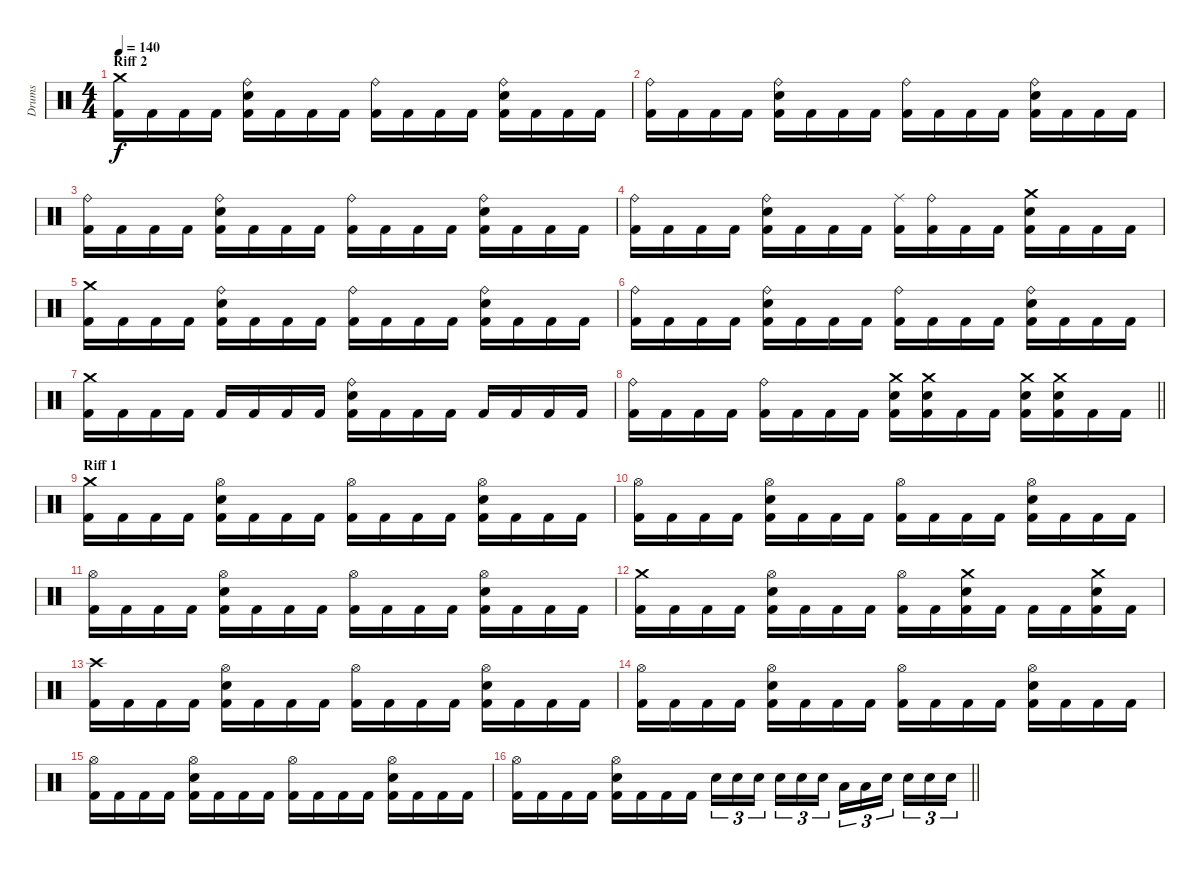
\track ("Drums" "Drums") {instrument percussion}
\staff {score}
\articulation defaults
\ts (4 4)
\section ("" "Riff 2")
\tempo 140
\clef neutral
\ks c
("Crash medium (hit)" "Kick (hit) 2").16{dy f} "Kick (hit) 2".16 "Kick (hit) 2".16 "Kick (hit) 2".16 ("Electric Snare (hit)" "Ride (bell)" "Kick (hit) 2").16 "Kick (hit) 2".16 "Kick (hit) 2".16 "Kick (hit) 2".16 ("Ride (bell)" "Kick (hit) 2").16 "Kick (hit) 2".16 "Kick (hit) 2".16 "Kick (hit) 2".16 ("Kick (hit) 2" "Electric Snare (hit)" "Ride (bell)").16 "Kick (hit) 2".16 "Kick (hit) 2".16 "Kick (hit) 2".16 |
("Ride (bell)" "Kick (hit) 2").16 "Kick (hit) 2".16 "Kick (hit) 2".16 "Kick (hit) 2".16 ("Ride (bell)" "Electric Snare (hit)" "Kick (hit) 2").16 "Kick (hit) 2".16 "Kick (hit) 2".16 "Kick (hit) 2".16 ("Ride (bell)" "Kick (hit) 2").16 "Kick (hit) 2".16 "Kick (hit) 2".16 "Kick (hit) 2".16 ("Kick (hit) 2" "Ride (bell)" "Electric Snare (hit)").16 "Kick (hit) 2".16 "Kick (hit) 2".16 "Kick (hit) 2".16 |
("Ride (bell)" "Kick (hit) 2").16 "Kick (hit) 2".16 "Kick (hit) 2".16 "Kick (hit) 2".16 ("Ride (bell)" "Electric Snare (hit)" "Kick (hit) 2").16 "Kick (hit) 2".16 "Kick (hit) 2".16 "Kick (hit) 2".16 ("Ride (bell)" "Kick (hit) 2").16 "Kick (hit) 2".16 "Kick (hit) 2".16 "Kick (hit) 2".16 ("Kick (hit) 2" "Ride (bell)" "Electric Snare (hit)").16 "Kick (hit) 2".16 "Kick (hit) 2".16 "Kick (hit) 2".16 |
("Ride (bell)" "Kick (hit) 2").16 "Kick (hit) 2".16 "Kick (hit) 2".16 "Kick (hit) 2".16 ("Ride (bell)" "Electric Snare (hit)" "Kick (hit) 2").16 "Kick (hit) 2".16 "Kick (hit) 2".16 "Kick (hit) 2".16 ("Ride (middle)" "Kick (hit) 2").16 ("Ride (bell)" "Kick (hit) 2").16 "Kick (hit) 2".16 "Kick (hit) 2".16 ("Kick (hit) 2" "Crash medium (hit)" "Electric Snare (hit)").16 "Kick (hit) 2".16 "Kick (hit) 2".16 "Kick (hit) 2".16 |
("Crash medium (hit)" "Kick (hit) 2").16 "Kick (hit) 2".16 "Kick (hit) 2".16 "Kick (hit) 2".16 ("Electric Snare (hit)" "Ride (bell)" "Kick (hit) 2").16 "Kick (hit) 2".16 "Kick (hit) 2".16 "Kick (hit) 2".16 ("Ride (bell)" "Kick (hit) 2").16 "Kick (hit) 2".16 "Kick (hit) 2".16 "Kick (hit) 2".16 ("Kick (hit) 2" "Electric Snare (hit)" "Ride (bell)").16 "Kick (hit) 2".16 "Kick (hit) 2".16 "Kick (hit) 2".16 |
("Ride (bell)" "Kick (hit) 2").16 "Kick (hit) 2".16 "Kick (hit) 2".16 "Kick (hit) 2".16 ("Ride (bell)" "Electric Snare (hit)" "Kick (hit) 2").16 "Kick (hit) 2".16 "Kick (hit) 2".16 "Kick (hit) 2".16 ("Ride (bell)" "Kick (hit) 2").16 "Kick (hit) 2".16 "Kick (hit) 2".16 "Kick (hit) 2".16 ("Kick (hit) 2" "Ride (bell)" "Electric Snare (hit)").16 "Kick (hit) 2".16 "Kick (hit) 2".16 "Kick (hit) 2".16 |
("Crash medium (hit)" "Kick (hit) 2").16 "Kick (hit) 2".16 "Kick (hit) 2".16 "Kick (hit) 2".16 "Kick (hit) 2".16 "Kick (hit) 2".16 "Kick (hit) 2".16 "Kick (hit) 2".16 ("Electric Snare (hit)" "Ride (bell)" "Kick (hit) 2").16 "Kick (hit) 2".16 "Kick (hit) 2".16 "Kick (hit) 2".16 "Kick (hit) 2".16 "Kick (hit) 2".16 "Kick (hit) 2".16 "Kick (hit) 2".16 |
\barLineRight lightlight
("Ride (bell)" "Kick (hit) 2").16 "Kick (hit) 2".16 "Kick (hit) 2".16 "Kick (hit) 2".16 ("Ride (bell)" "Kick (hit) 2").16 "Kick (hit) 2".16 "Kick (hit) 2".16 "Kick (hit) 2".16 ("Electric Snare (hit)" "Crash medium (hit)" "Kick (hit) 2").16 ("Electric Snare (hit)" "Crash medium (hit)" "Kick (hit) 2").16 "Kick (hit) 2".16 "Kick (hit) 2".16 ("Electric Snare (hit)" "Crash medium (hit)" "Kick (hit) 2").16 ("Electric Snare (hit)" "Crash medium (hit)" "Kick (hit) 2").16 "Kick (hit) 2".16 "Kick (hit) 2".16 |
\section ("" "Riff 1")
("Crash medium (hit)" "Kick (hit) 2").16 "Kick (hit) 2".16 "Kick (hit) 2".16 "Kick (hit) 2".16 ("Kick (hit) 2" "Electric Snare (hit)" "Hi-Hat (open)").16 "Kick (hit) 2".16 "Kick (hit) 2".16 "Kick (hit) 2".16 ("Kick (hit) 2" "Hi-Hat (open)").16 "Kick (hit) 2".16 "Kick (hit) 2".16 "Kick (hit) 2".16 ("Kick (hit) 2" "Electric Snare (hit)" "Hi-Hat (open)").16 "Kick (hit) 2".16 "Kick (hit) 2".16 "Kick (hit) 2".16 |
("Kick (hit) 2" "Hi-Hat (open)").16 "Kick (hit) 2".16 "Kick (hit) 2".16 "Kick (hit) 2".16 ("Kick (hit) 2" "Electric Snare (hit)" "Hi-Hat (open)").16 "Kick (hit) 2".16 "Kick (hit) 2".16 "Kick (hit) 2".16 ("Kick (hit) 2" "Hi-Hat (open)").16 "Kick (hit) 2".16 "Kick (hit) 2".16 "Kick (hit) 2".16 ("Kick (hit) 2" "Electric Snare (hit)" "Hi-Hat (open)").16 "Kick (hit) 2".16 "Kick (hit) 2".16 "Kick (hit) 2".16 |
("Kick (hit) 2" "Hi-Hat (open)").16 "Kick (hit) 2".16 "Kick (hit) 2".16 "Kick (hit) 2".16 ("Kick (hit) 2" "Electric Snare (hit)" "Hi-Hat (open)").16 "Kick (hit) 2".16 "Kick (hit) 2".16 "Kick (hit) 2".16 ("Kick (hit) 2" "Hi-Hat (open)").16 "Kick (hit) 2".16 "Kick (hit) 2".16 "Kick (hit) 2".16 ("Kick (hit) 2" "Electric Snare (hit)" "Hi-Hat (open)").16 "Kick (hit) 2".16 "Kick (hit) 2".16 "Kick (hit) 2".16 |
("Kick (hit) 2" "Crash medium (hit)").16 "Kick (hit) 2".16 "Kick (hit) 2".16 "Kick (hit) 2".16 ("Kick (hit) 2" "Electric Snare (hit)" "Hi-Hat (open)").16 "Kick (hit) 2".16 "Kick (hit) 2".16 "Kick (hit) 2".16 ("Kick (hit) 2" "Hi-Hat (open)").16 "Kick (hit) 2".16 ("Kick (hit) 2" "Electric Snare (hit)" "Crash medium (hit)").16 "Kick (hit) 2".16 "Kick (hit) 2".16 "Kick (hit) 2".16 ("Kick (hit) 2" "Electric Snare (hit)" "Crash medium (hit)").16 "Kick (hit) 2".16 |
("Crash high (hit)" "Kick (hit) 2").16 "Kick (hit) 2".16 "Kick (hit) 2".16 "Kick (hit) 2".16 ("Kick (hit) 2" "Electric Snare (hit)" "Hi-Hat (open)").16 "Kick (hit) 2".16 "Kick (hit) 2".16 "Kick (hit) 2".16 ("Kick (hit) 2" "Hi-Hat (open)").16 "Kick (hit) 2".16 "Kick (hit) 2".16 "Kick (hit) 2".16 ("Kick (hit) 2" "Electric Snare (hit)" "Hi-Hat (open)").16 "Kick (hit) 2".16 "Kick (hit) 2".16 "Kick (hit) 2".16 |
("Kick (hit) 2" "Hi-Hat (open)").16 "Kick (hit) 2".16 "Kick (hit) 2".16 "Kick (hit) 2".16 ("Kick (hit) 2" "Electric Snare (hit)" "Hi-Hat (open)").16 "Kick (hit) 2".16 "Kick (hit) 2".16 "Kick (hit) 2".16 ("Kick (hit) 2" "Hi-Hat (open)").16 "Kick (hit) 2".16 "Kick (hit) 2".16 "Kick (hit) 2".16 ("Kick (hit) 2" "Electric Snare (hit)" "Hi-Hat (open)").16 "Kick (hit) 2".16 "Kick (hit) 2".16 "Kick (hit) 2".16 |
("Kick (hit) 2" "Hi-Hat (open)").16 "Kick (hit) 2".16 "Kick (hit) 2".16 "Kick (hit) 2".16 ("Kick (hit) 2" "Electric Snare (hit)" "Hi-Hat (open)").16 "Kick (hit) 2".16 "Kick (hit) 2".16 "Kick (hit) 2".16 ("Kick (hit) 2" "Hi-Hat (open)").16 "Kick (hit) 2".16 "Kick (hit) 2".16 "Kick (hit) 2".16 ("Kick (hit) 2" "Electric Snare (hit)" "Hi-Hat (open)").16 "Kick (hit) 2".16 "Kick (hit) 2".16 "Kick (hit) 2".16 |
\barLineRight lightlight
("Kick (hit) 2" "Hi-Hat (open)").16 "Kick (hit) 2".16 "Kick (hit) 2".16 "Kick (hit) 2".16 ("Kick (hit) 2" "Electric Snare (hit)" "Hi-Hat (open)").16 "Kick (hit) 2".16 "Kick (hit) 2".16 "Kick (hit) 2".16 "Electric Snare (hit)".16{tu (3 2)} "Electric Snare (hit)".16{tu (3 2)} "Electric Snare (hit)".16{tu (3 2) beam splitsecondary} "Electric Snare (hit)".16{tu (3 2)} "Electric Snare (hit)".16{tu (3 2)} "Electric Snare (hit)".16{tu (3 2)} "Low Tom (hit)".16{tu (3 2)} "Low Tom (hit)".16{tu (3 2)} "Electric Snare (hit)".16{tu (3 2) beam splitsecondary} "Electric Snare (hit)".16{tu (3 2)} "Electric Snare (hit)".16{tu (3 2)} "Electric Snare (hit)".16{tu (3 2)}
